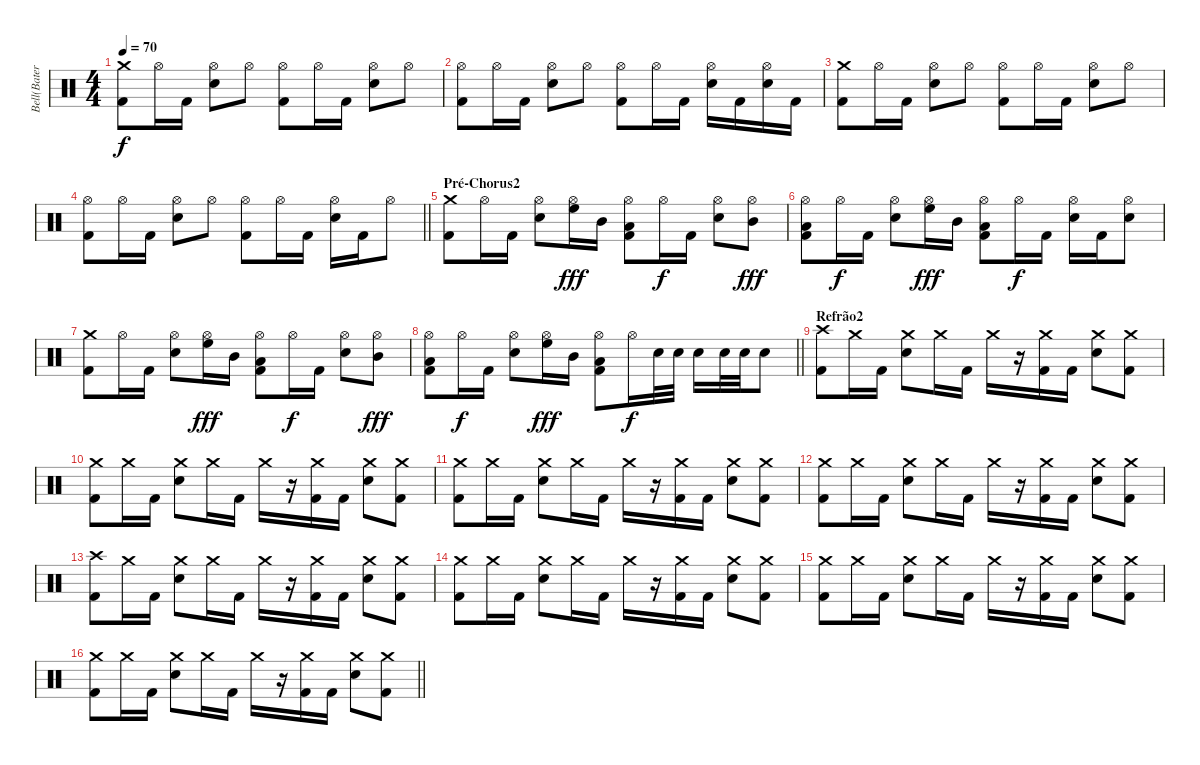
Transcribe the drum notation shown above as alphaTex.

\track ("Bell(Bateria)" "Bell(Bater") {instrument percussion}
\staff {score}
\articulation defaults
\ts (4 4)
\tempo 70
\clef neutral
\ks c
("Crash medium (hit)" "Kick (hit) 2").8{dy f} "Hi-Hat (open)".16 "Kick (hit) 2".16 ("Hi-Hat (open)" "Electric Snare (hit)").8 "Hi-Hat (open)".8 ("Hi-Hat (open)" "Kick (hit) 2").8 "Hi-Hat (open)".16 "Kick (hit) 2".16 ("Hi-Hat (open)" "Electric Snare (hit)").8 "Hi-Hat (open)".8 |
("Hi-Hat (open)" "Kick (hit) 2").8 "Hi-Hat (open)".16 "Kick (hit) 2".16 ("Hi-Hat (open)" "Electric Snare (hit)").8 "Hi-Hat (open)".8 ("Hi-Hat (open)" "Kick (hit) 2").8 "Hi-Hat (open)".16 "Kick (hit) 2".16 ("Hi-Hat (open)" "Electric Snare (hit)").16 "Kick (hit) 2".16 ("Hi-Hat (open)" "Electric Snare (hit)").16 "Kick (hit) 2".16 |
("Crash medium (hit)" "Kick (hit) 2").8 "Hi-Hat (open)".16 "Kick (hit) 2".16 ("Hi-Hat (open)" "Electric Snare (hit)").8 "Hi-Hat (open)".8 ("Hi-Hat (open)" "Kick (hit) 2").8 "Hi-Hat (open)".16 "Kick (hit) 2".16 ("Hi-Hat (open)" "Electric Snare (hit)").8 "Hi-Hat (open)".8 |
\barLineRight lightlight
("Hi-Hat (open)" "Kick (hit) 2").8 "Hi-Hat (open)".16 "Kick (hit) 2".16 ("Hi-Hat (open)" "Electric Snare (hit)").8 "Hi-Hat (open)".8 ("Hi-Hat (open)" "Kick (hit) 2").8 "Hi-Hat (open)".16 "Kick (hit) 2".16 ("Hi-Hat (open)" "Electric Snare (hit)").16 "Kick (hit) 2".16 "Hi-Hat (open)".8 |
\section ("" "Pré-Chorus2")
("Crash medium (hit)" "Kick (hit) 2").8 "Hi-Hat (open)".16 "Kick (hit) 2".16 ("Hi-Hat (open)" "Electric Snare (hit)").8 ("Hi-Hat (open)" "High Floor Tom (hit)").16{dy fff} "Mid Tom (hit)".16 ("Hi-Hat (open)" "Low Tom (hit)" "Kick (hit) 2").8 "Hi-Hat (open)".16{dy f} "Kick (hit) 2".16 ("Hi-Hat (open)" "Electric Snare (hit)").8 ("Hi-Hat (open)" "Mid Tom (hit)").8{dy fff} |
("Hi-Hat (open)" "Low Tom (hit)" "Kick (hit) 2").8 "Hi-Hat (open)".16{dy f} "Kick (hit) 2".16 ("Hi-Hat (open)" "Electric Snare (hit)").8 ("Hi-Hat (open)" "High Floor Tom (hit)").16{dy fff} "Mid Tom (hit)".16 ("Hi-Hat (open)" "Low Tom (hit)" "Kick (hit) 2").8 "Hi-Hat (open)".16{dy f} "Kick (hit) 2".16 ("Hi-Hat (open)" "Electric Snare (hit)").16 "Kick (hit) 2".16 ("Hi-Hat (open)" "Electric Snare (hit)").8 |
("Crash medium (hit)" "Kick (hit) 2").8 "Hi-Hat (open)".16 "Kick (hit) 2".16 ("Hi-Hat (open)" "Electric Snare (hit)").8 ("Hi-Hat (open)" "High Floor Tom (hit)").16{dy fff} "Mid Tom (hit)".16 ("Hi-Hat (open)" "Low Tom (hit)" "Kick (hit) 2").8 "Hi-Hat (open)".16{dy f} "Kick (hit) 2".16 ("Hi-Hat (open)" "Electric Snare (hit)").8 ("Hi-Hat (open)" "Mid Tom (hit)").8{dy fff} |
\barLineRight lightlight
("Hi-Hat (open)" "Low Tom (hit)" "Kick (hit) 2").8 "Hi-Hat (open)".16{dy f} "Kick (hit) 2".16 ("Hi-Hat (open)" "Electric Snare (hit)").8 ("Hi-Hat (open)" "High Floor Tom (hit)").16{dy fff} "Mid Tom (hit)".16 ("Hi-Hat (open)" "Low Tom (hit)" "Kick (hit) 2").8 "Hi-Hat (open)".16{dy f} "Electric Snare (hit)".32 "Electric Snare (hit)".32 "Electric Snare (hit)".16 "Electric Snare (hit)".32 "Electric Snare (hit)".32 "Electric Snare (hit)".8 |
\section ("" "Refrão2")
("Crash high (hit)" "Kick (hit) 2").8 "Crash medium (hit)".16 "Kick (hit) 2".16 ("Crash medium (hit)" "Electric Snare (hit)").8 "Crash medium (hit)".16 "Kick (hit) 2".16 "Crash medium (hit)".16 r.16 ("Crash medium (hit)" "Kick (hit) 2").16 "Kick (hit) 2".16 ("Crash medium (hit)" "Electric Snare (hit)").8 ("Crash medium (hit)" "Kick (hit) 2").8 |
("Crash medium (hit)" "Kick (hit) 2").8 "Crash medium (hit)".16 "Kick (hit) 2".16 ("Crash medium (hit)" "Electric Snare (hit)").8 "Crash medium (hit)".16 "Kick (hit) 2".16 "Crash medium (hit)".16 r.16 ("Crash medium (hit)" "Kick (hit) 2").16 "Kick (hit) 2".16 ("Crash medium (hit)" "Electric Snare (hit)").8 ("Crash medium (hit)" "Kick (hit) 2").8 |
("Crash medium (hit)" "Kick (hit) 2").8 "Crash medium (hit)".16 "Kick (hit) 2".16 ("Crash medium (hit)" "Electric Snare (hit)").8 "Crash medium (hit)".16 "Kick (hit) 2".16 "Crash medium (hit)".16 r.16 ("Crash medium (hit)" "Kick (hit) 2").16 "Kick (hit) 2".16 ("Crash medium (hit)" "Electric Snare (hit)").8 ("Crash medium (hit)" "Kick (hit) 2").8 |
("Crash medium (hit)" "Kick (hit) 2").8 "Crash medium (hit)".16 "Kick (hit) 2".16 ("Crash medium (hit)" "Electric Snare (hit)").8 "Crash medium (hit)".16 "Kick (hit) 2".16 "Crash medium (hit)".16 r.16 ("Crash medium (hit)" "Kick (hit) 2").16 "Kick (hit) 2".16 ("Crash medium (hit)" "Electric Snare (hit)").8 ("Crash medium (hit)" "Kick (hit) 2").8 |
("Crash high (hit)" "Kick (hit) 2").8 "Crash medium (hit)".16 "Kick (hit) 2".16 ("Crash medium (hit)" "Electric Snare (hit)").8 "Crash medium (hit)".16 "Kick (hit) 2".16 "Crash medium (hit)".16 r.16 ("Crash medium (hit)" "Kick (hit) 2").16 "Kick (hit) 2".16 ("Crash medium (hit)" "Electric Snare (hit)").8 ("Crash medium (hit)" "Kick (hit) 2").8 |
("Crash medium (hit)" "Kick (hit) 2").8 "Crash medium (hit)".16 "Kick (hit) 2".16 ("Crash medium (hit)" "Electric Snare (hit)").8 "Crash medium (hit)".16 "Kick (hit) 2".16 "Crash medium (hit)".16 r.16 ("Crash medium (hit)" "Kick (hit) 2").16 "Kick (hit) 2".16 ("Crash medium (hit)" "Electric Snare (hit)").8 ("Crash medium (hit)" "Kick (hit) 2").8 |
("Crash medium (hit)" "Kick (hit) 2").8 "Crash medium (hit)".16 "Kick (hit) 2".16 ("Crash medium (hit)" "Electric Snare (hit)").8 "Crash medium (hit)".16 "Kick (hit) 2".16 "Crash medium (hit)".16 r.16 ("Crash medium (hit)" "Kick (hit) 2").16 "Kick (hit) 2".16 ("Crash medium (hit)" "Electric Snare (hit)").8 ("Crash medium (hit)" "Kick (hit) 2").8 |
\barLineRight lightlight
("Crash medium (hit)" "Kick (hit) 2").8 "Crash medium (hit)".16 "Kick (hit) 2".16 ("Crash medium (hit)" "Electric Snare (hit)").8 "Crash medium (hit)".16 "Kick (hit) 2".16 "Crash medium (hit)".16 r.16 ("Crash medium (hit)" "Kick (hit) 2").16 "Kick (hit) 2".16 ("Crash medium (hit)" "Electric Snare (hit)").8 ("Crash medium (hit)" "Kick (hit) 2").8
